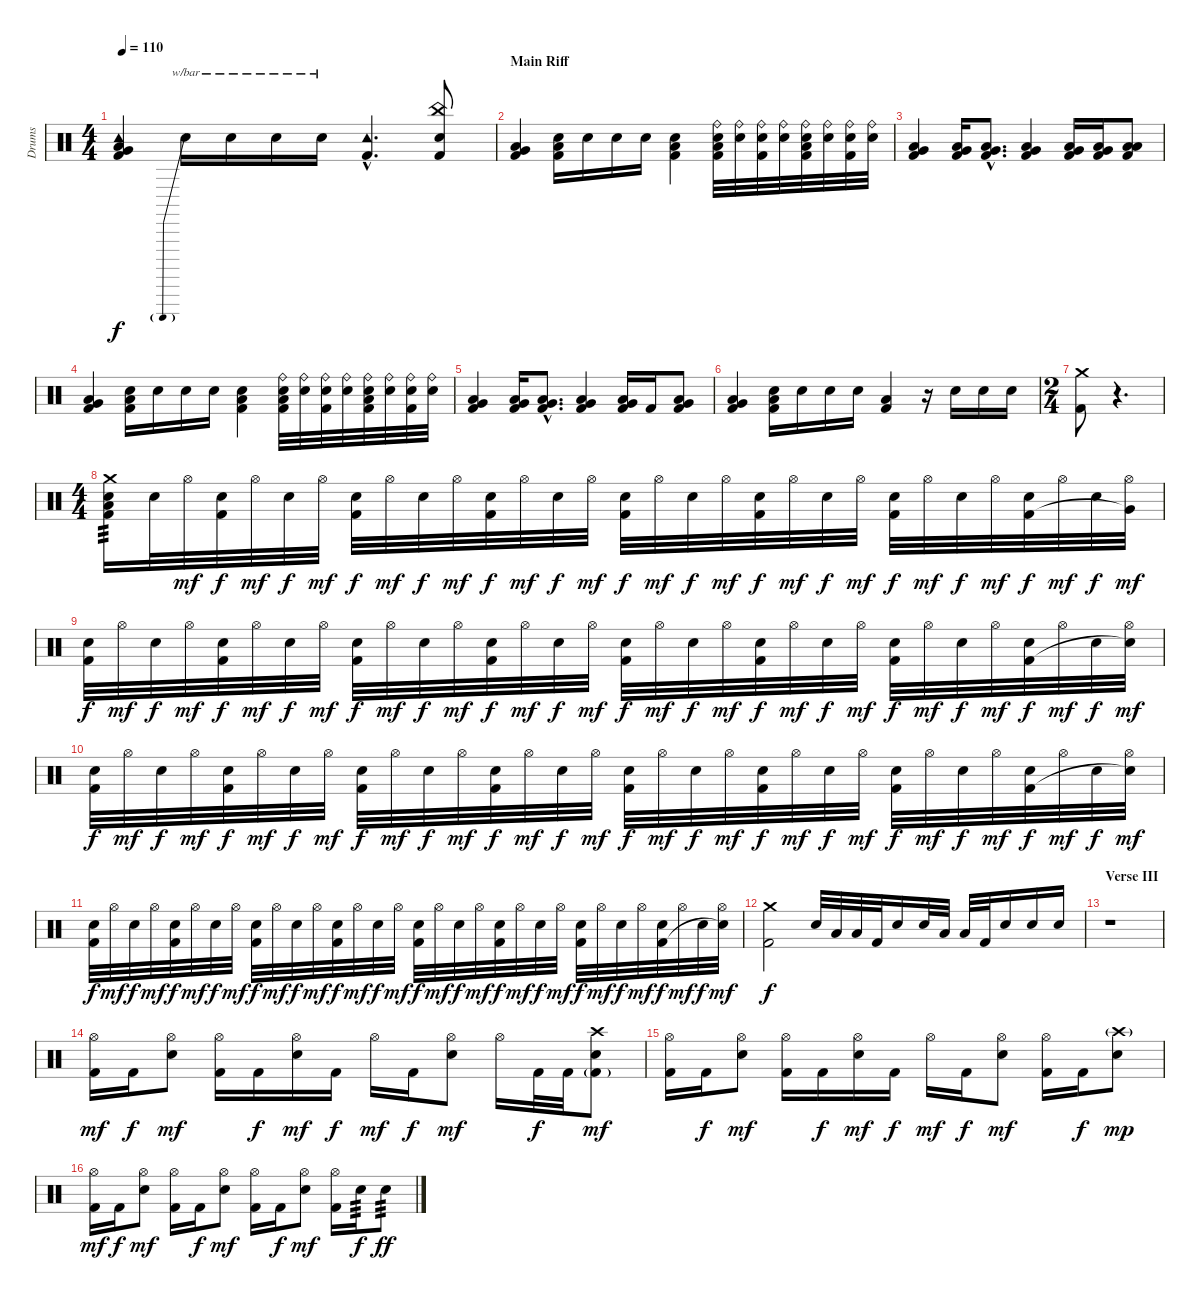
\track ("Drums" "Drums") {instrument percussion}
\staff {score}
\articulation defaults
\ts (4 4)
\tempo 110
\clef neutral
\ks c
("Tambourine (hit)" "Very Low Tom (hit)" "Low Floor Tom (hit)" "Kick (hit) 2").4{dy f} "Metronome (bell)".16{tbe (predive default 0 -24 60 -24)} "Metronome (bell)".16{tbe (hold default 0 -24 60 -24)} "Metronome (bell)".16{tbe (hold default 0 -24 60 -24)} "Metronome (bell)".16{tbe (hold default 0 -24 60 -24)} ("Tambourine (hit)"{tr (54 32) hac} "Kick (hit) 2"{tr (36 32) hac}).4{d} ("China (hit)" "Electric Snare (hit)" "Kick (hit) 2").8 |
\section ("" "Main Riff")
("Very Low Tom (hit)" "Low Floor Tom (hit)" "Kick (hit) 2").4 ("Low Floor Tom (hit)" "Electric Snare (hit)" "Kick (hit) 2").16 "Electric Snare (hit)".16 "Electric Snare (hit)".16 "Electric Snare (hit)".16 ("Low Floor Tom (hit)" "Electric Snare (hit)" "Kick (hit) 2").4 ("Ride (bell)" "Low Floor Tom (hit)" "Electric Snare (hit)" "Kick (hit) 2").32 ("Ride (bell)" "Electric Snare (hit)").32 ("Ride (bell)" "Electric Snare (hit)" "Kick (hit) 2").32 ("Ride (bell)" "Electric Snare (hit)").32 ("Ride (bell)" "Low Floor Tom (hit)" "Electric Snare (hit)" "Kick (hit) 2").32 ("Ride (bell)" "Electric Snare (hit)").32 ("Ride (bell)" "Electric Snare (hit)" "Kick (hit) 2").32 ("Ride (bell)" "Electric Snare (hit)").32 |
("Very Low Tom (hit)" "Low Floor Tom (hit)" "Kick (hit) 2").4 ("Very Low Tom (hit)" "Low Floor Tom (hit)" "Kick (hit) 2").16 ("Very Low Tom (hit)"{hac} "Low Floor Tom (hit)"{hac} "Kick (hit) 2"{hac}).8{d} ("Very Low Tom (hit)" "Low Floor Tom (hit)" "Kick (hit) 2").4 ("Very Low Tom (hit)" "Low Floor Tom (hit)" "Kick (hit) 2").16 ("Very Low Tom (hit)" "Low Floor Tom (hit)" "Kick (hit) 2").16 ("Low Tom (hit)" "Low Floor Tom (hit)" "Kick (hit) 2").8 |
("Very Low Tom (hit)" "Low Floor Tom (hit)" "Kick (hit) 2").4 ("Low Floor Tom (hit)" "Electric Snare (hit)" "Kick (hit) 2").16 "Electric Snare (hit)".16 "Electric Snare (hit)".16 "Electric Snare (hit)".16 ("Low Floor Tom (hit)" "Electric Snare (hit)" "Kick (hit) 2").4 ("Ride (bell)" "Low Floor Tom (hit)" "Electric Snare (hit)" "Kick (hit) 2").32 ("Ride (bell)" "Electric Snare (hit)").32 ("Ride (bell)" "Electric Snare (hit)" "Kick (hit) 2").32 ("Ride (bell)" "Electric Snare (hit)").32 ("Ride (bell)" "Low Floor Tom (hit)" "Electric Snare (hit)" "Kick (hit) 2").32 ("Ride (bell)" "Electric Snare (hit)").32 ("Ride (bell)" "Electric Snare (hit)" "Kick (hit) 2").32 ("Ride (bell)" "Electric Snare (hit)").32 |
("Very Low Tom (hit)" "Low Floor Tom (hit)" "Kick (hit) 2").4 ("Very Low Tom (hit)" "Low Floor Tom (hit)" "Kick (hit) 2").16 ("Very Low Tom (hit)"{hac} "Low Floor Tom (hit)"{hac} "Kick (hit) 2"{hac}).8{d} ("Very Low Tom (hit)" "Low Floor Tom (hit)" "Kick (hit) 2").4 ("Very Low Tom (hit)" "Low Floor Tom (hit)" "Kick (hit) 2").16 "Kick (hit) 2".16 ("Very Low Tom (hit)" "Low Floor Tom (hit)" "Kick (hit) 2").8 |
("Very Low Tom (hit)" "Low Floor Tom (hit)" "Kick (hit) 2").4 ("Low Floor Tom (hit)" "Electric Snare (hit)" "Kick (hit) 2").16 "Electric Snare (hit)".16 "Electric Snare (hit)".16 "Electric Snare (hit)".16 ("Low Floor Tom (hit)" "Kick (hit) 2").4 r.16 "Electric Snare (hit)".16 "Electric Snare (hit)".16 "Electric Snare (hit)".16 |
\ts (2 4)
("Crash medium (hit)" "Kick (hit) 2").8 r.4{d volume 5} |
\ts (4 4)
("Crash medium (hit)" "Low Floor Tom (hit)" "Electric Snare (hit)" "Kick (hit) 2").16{tp 3 volume 13} "Electric Snare (hit)".32 "Hi-Hat (open)".32{dy mf} ("Electric Snare (hit)" "Kick (hit) 2").32{dy f} "Hi-Hat (open)".32{dy mf} "Electric Snare (hit)".32{dy f} "Hi-Hat (open)".32{dy mf} ("Electric Snare (hit)" "Kick (hit) 2").32{dy f} "Hi-Hat (open)".32{dy mf} "Electric Snare (hit)".32{dy f} "Hi-Hat (open)".32{dy mf} ("Electric Snare (hit)" "Kick (hit) 2").32{dy f} "Hi-Hat (open)".32{dy mf} "Electric Snare (hit)".32{dy f} "Hi-Hat (open)".32{dy mf} ("Electric Snare (hit)" "Kick (hit) 2").32{dy f} "Hi-Hat (open)".32{dy mf} "Electric Snare (hit)".32{dy f} "Hi-Hat (open)".32{dy mf} ("Electric Snare (hit)" "Kick (hit) 2").32{dy f} "Hi-Hat (open)".32{dy mf} "Electric Snare (hit)".32{dy f} "Hi-Hat (open)".32{dy mf} ("Electric Snare (hit)" "Kick (hit) 2").32{dy f} "Hi-Hat (open)".32{dy mf} "Electric Snare (hit)".32{dy f} "Hi-Hat (open)".32{dy mf} ("Electric Snare (hit)" "Kick (hit) 2").32{dy f} "Hi-Hat (open)".32{dy mf} "Electric Snare (hit)".32{dy f} ("Hi-Hat (open)" "Very Low Tom (hit)"{t}).32{dy mf} |
("Electric Snare (hit)" "Kick (hit) 2").32{dy f} "Hi-Hat (open)".32{dy mf} "Electric Snare (hit)".32{dy f} "Hi-Hat (open)".32{dy mf} ("Electric Snare (hit)" "Kick (hit) 2").32{dy f} "Hi-Hat (open)".32{dy mf} "Electric Snare (hit)".32{dy f} "Hi-Hat (open)".32{dy mf} ("Electric Snare (hit)" "Kick (hit) 2").32{dy f} "Hi-Hat (open)".32{dy mf} "Electric Snare (hit)".32{dy f} "Hi-Hat (open)".32{dy mf} ("Electric Snare (hit)" "Kick (hit) 2").32{dy f} "Hi-Hat (open)".32{dy mf} "Electric Snare (hit)".32{dy f} "Hi-Hat (open)".32{dy mf} ("Electric Snare (hit)" "Kick (hit) 2").32{dy f} "Hi-Hat (open)".32{dy mf} "Electric Snare (hit)".32{dy f} "Hi-Hat (open)".32{dy mf} ("Electric Snare (hit)" "Kick (hit) 2").32{dy f} "Hi-Hat (open)".32{dy mf} "Electric Snare (hit)".32{dy f} "Hi-Hat (open)".32{dy mf} ("Electric Snare (hit)" "Kick (hit) 2").32{dy f} "Hi-Hat (open)".32{dy mf} "Electric Snare (hit)".32{dy f} "Hi-Hat (open)".32{dy mf} ("Electric Snare (hit)" "Kick (hit) 2").32{dy f} "Hi-Hat (open)".32{dy mf} "Electric Snare (hit)".32{dy f} ("Hi-Hat (open)" "Snare (hit)"{t}).32{dy mf} |
("Electric Snare (hit)" "Kick (hit) 2").32{dy f} "Hi-Hat (open)".32{dy mf} "Electric Snare (hit)".32{dy f} "Hi-Hat (open)".32{dy mf} ("Electric Snare (hit)" "Kick (hit) 2").32{dy f} "Hi-Hat (open)".32{dy mf} "Electric Snare (hit)".32{dy f} "Hi-Hat (open)".32{dy mf} ("Electric Snare (hit)" "Kick (hit) 2").32{dy f} "Hi-Hat (open)".32{dy mf} "Electric Snare (hit)".32{dy f} "Hi-Hat (open)".32{dy mf} ("Electric Snare (hit)" "Kick (hit) 2").32{dy f} "Hi-Hat (open)".32{dy mf} "Electric Snare (hit)".32{dy f} "Hi-Hat (open)".32{dy mf} ("Electric Snare (hit)" "Kick (hit) 2").32{dy f} "Hi-Hat (open)".32{dy mf} "Electric Snare (hit)".32{dy f} "Hi-Hat (open)".32{dy mf} ("Electric Snare (hit)" "Kick (hit) 2").32{dy f} "Hi-Hat (open)".32{dy mf} "Electric Snare (hit)".32{dy f} "Hi-Hat (open)".32{dy mf} ("Electric Snare (hit)" "Kick (hit) 2").32{dy f} "Hi-Hat (open)".32{dy mf} "Electric Snare (hit)".32{dy f} "Hi-Hat (open)".32{dy mf} ("Electric Snare (hit)" "Kick (hit) 2").32{dy f} "Hi-Hat (open)".32{dy mf} "Electric Snare (hit)".32{dy f} ("Hi-Hat (open)" "Snare (hit)"{t}).32{dy mf} |
("Electric Snare (hit)" "Kick (hit) 2").32{dy f} "Hi-Hat (open)".32{dy mf} "Electric Snare (hit)".32{dy f} "Hi-Hat (open)".32{dy mf} ("Electric Snare (hit)" "Kick (hit) 2").32{dy f} "Hi-Hat (open)".32{dy mf} "Electric Snare (hit)".32{dy f} "Hi-Hat (open)".32{dy mf} ("Electric Snare (hit)" "Kick (hit) 2").32{dy f} "Hi-Hat (open)".32{dy mf} "Electric Snare (hit)".32{dy f} "Hi-Hat (open)".32{dy mf} ("Electric Snare (hit)" "Kick (hit) 2").32{dy f} "Hi-Hat (open)".32{dy mf} "Electric Snare (hit)".32{dy f} "Hi-Hat (open)".32{dy mf} ("Electric Snare (hit)" "Kick (hit) 2").32{dy f} "Hi-Hat (open)".32{dy mf} "Electric Snare (hit)".32{dy f} "Hi-Hat (open)".32{dy mf} ("Electric Snare (hit)" "Kick (hit) 2").32{dy f} "Hi-Hat (open)".32{dy mf} "Electric Snare (hit)".32{dy f} "Hi-Hat (open)".32{dy mf} ("Electric Snare (hit)" "Kick (hit) 2").32{dy f} "Hi-Hat (open)".32{dy mf} "Electric Snare (hit)".32{dy f} "Hi-Hat (open)".32{dy mf} ("Electric Snare (hit)" "Kick (hit) 2").32{dy f} "Hi-Hat (open)".32{dy mf} "Electric Snare (hit)".32{dy f} ("Hi-Hat (open)" "Snare (hit)"{t}).32{dy mf} |
("Crash medium (hit)" "Kick (hit) 2").2{dy f} "Electric Snare (hit)".32 "Low Tom (hit)".32 "Low Floor Tom (hit)".32 "Kick (hit) 2".32 "Electric Snare (hit)".16 "Electric Snare (hit)".32 "Low Tom (hit)".32 "Low Floor Tom (hit)".32 "Kick (hit) 2".32 "Electric Snare (hit)".16 "Electric Snare (hit)".16 "Electric Snare (hit)".16 |
\section ("" "Verse III")
r.1 |
("Hi-Hat (open)" "Kick (hit) 2").16{dy mf} "Kick (hit) 2".16{dy f} ("Hi-Hat (open)" "Electric Snare (hit)").8{dy mf} ("Hi-Hat (open)" "Kick (hit) 2").16 "Kick (hit) 2".16{dy f} ("Hi-Hat (open)" "Electric Snare (hit)").16{dy mf} "Kick (hit) 2".16{dy f} "Hi-Hat (open)".16{dy mf} "Kick (hit) 2".16{dy f} ("Hi-Hat (open)" "Electric Snare (hit)").8{dy mf} "Hi-Hat (open)".16 "Kick (hit) 2".32{dy f} "Kick (hit) 2".32 ("Crash high (hit)" "Electric Snare (hit)" "Kick (hit) 2"{g}).8{dy mf} |
("Hi-Hat (open)" "Kick (hit) 2").16 "Kick (hit) 2".16{dy f} ("Hi-Hat (open)" "Electric Snare (hit)").8{dy mf} ("Hi-Hat (open)" "Kick (hit) 2").16 "Kick (hit) 2".16{dy f} ("Hi-Hat (open)" "Electric Snare (hit)").16{dy mf} "Kick (hit) 2".16{dy f} "Hi-Hat (open)".16{dy mf} "Kick (hit) 2".16{dy f} ("Hi-Hat (open)" "Electric Snare (hit)").8{dy mf} ("Hi-Hat (open)" "Kick (hit) 2").16 "Kick (hit) 2".16{dy f} ("Crash high (hit)"{g} "Electric Snare (hit)").8{dy mp} |
("Hi-Hat (open)" "Kick (hit) 2").16{dy mf} "Kick (hit) 2".16{dy f} ("Hi-Hat (open)" "Electric Snare (hit)").8{dy mf} ("Hi-Hat (open)" "Kick (hit) 2").16 "Kick (hit) 2".16{dy f} ("Hi-Hat (open)" "Electric Snare (hit)").8{dy mf} ("Hi-Hat (open)" "Kick (hit) 2").16 "Kick (hit) 2".16{dy f} ("Hi-Hat (open)" "Electric Snare (hit)").8{dy mf} ("Hi-Hat (open)" "Kick (hit) 2").16 "Electric Snare (hit)".16{tp 3 dy f} "Electric Snare (hit)".8{tp 3 dy ff}
